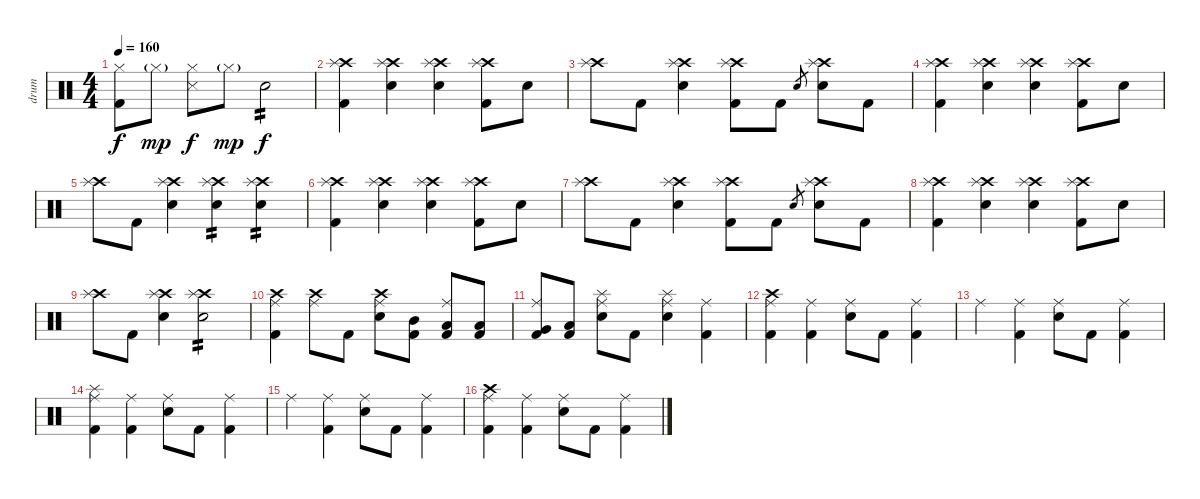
\track ("drum" "drum") {instrument percussion}
\staff {score}
\articulation defaults
\ts (4 4)
\tempo 160
\clef neutral
\ks c
("Hi-Hat (closed)" "Kick (hit) 2").8{dy f} "Hi-Hat (closed)"{g}.8{dy mp} ("Hi-Hat (closed)" "Snare (side stick) 3").8{dy f} "Hi-Hat (closed)"{g}.8{dy mp} "Electric Snare (hit)".2{tp 2 dy f} |
("Crash high (hit)" "Splash (hit)" "Kick (hit) 2").4 ("Crash high (hit)" "Splash (hit)" "Electric Snare (hit)").4 ("Crash high (hit)" "Splash (hit)" "Electric Snare (hit)").4 ("Crash high (hit)" "Splash (hit)" "Kick (hit) 2").8 "Electric Snare (hit)".8 |
("Crash high (hit)" "Splash (hit)").8 "Kick (hit) 2".8 ("Crash high (hit)" "Splash (hit)" "Electric Snare (hit)").4 ("Crash high (hit)" "Splash (hit)" "Kick (hit) 2").8 "Kick (hit) 2".8 "Electric Snare (hit)".8{gr} ("Crash high (hit)" "Splash (hit)" "Electric Snare (hit)").8 "Kick (hit) 2".8 |
("Crash high (hit)" "Splash (hit)" "Kick (hit) 2").4 ("Crash high (hit)" "Splash (hit)" "Electric Snare (hit)").4 ("Crash high (hit)" "Splash (hit)" "Electric Snare (hit)").4 ("Crash high (hit)" "Splash (hit)" "Kick (hit) 2").8 "Electric Snare (hit)".8 |
("Crash high (hit)" "Splash (hit)").8 "Kick (hit) 2".8 ("Crash high (hit)" "Splash (hit)" "Electric Snare (hit)").4 ("Crash high (hit)" "Splash (hit)" "Electric Snare (hit)").4{tp 2} ("Crash high (hit)" "Splash (hit)" "Electric Snare (hit)").4{tp 2} |
("Crash high (hit)" "Splash (hit)" "Kick (hit) 2").4 ("Crash high (hit)" "Splash (hit)" "Electric Snare (hit)").4 ("Crash high (hit)" "Splash (hit)" "Electric Snare (hit)").4 ("Crash high (hit)" "Splash (hit)" "Kick (hit) 2").8 "Electric Snare (hit)".8 |
("Crash high (hit)" "Splash (hit)").8 "Kick (hit) 2".8 ("Crash high (hit)" "Splash (hit)" "Electric Snare (hit)").4 ("Crash high (hit)" "Splash (hit)" "Kick (hit) 2").8 "Kick (hit) 2".8 "Electric Snare (hit)".8{gr} ("Crash high (hit)" "Splash (hit)" "Electric Snare (hit)").8 "Kick (hit) 2".8 |
("Crash high (hit)" "Splash (hit)" "Kick (hit) 2").4 ("Crash high (hit)" "Splash (hit)" "Electric Snare (hit)").4 ("Crash high (hit)" "Splash (hit)" "Electric Snare (hit)").4 ("Crash high (hit)" "Splash (hit)" "Kick (hit) 2").8 "Electric Snare (hit)".8 |
("Crash high (hit)" "Splash (hit)").8 "Kick (hit) 2".8 ("Crash high (hit)" "Splash (hit)" "Electric Snare (hit)").4 ("Crash high (hit)" "Splash (hit)" "Electric Snare (hit)").2{tp 2} |
("Crash high (hit)" "Ride (middle)" "Kick (hit) 2").4 ("Crash high (hit)" "Ride (middle)").8 "Kick (hit) 2".8 ("Crash high (hit)" "Ride (middle)" "Electric Snare (hit)").8 ("Mid Tom (hit)" "Kick (hit) 2").8 ("Ride (middle)" "Low Tom (hit)" "Kick (hit) 2").8 ("Low Tom (hit)" "Kick (hit) 2").8 |
("Ride (middle)" "Very Low Tom (hit)" "Kick (hit) 2").8 ("Low Floor Tom (hit)" "Kick (hit) 2").8 ("Splash (hit)" "Ride (middle)" "Electric Snare (hit)").8 "Kick (hit) 2".8 ("Splash (hit)" "Ride (middle)" "Electric Snare (hit)").4 ("Ride (middle)" "Kick (hit) 2").4 |
("Crash high (hit)" "Ride (middle)" "Kick (hit) 2").4 ("Ride (middle)" "Kick (hit) 2").4 ("Ride (middle)" "Electric Snare (hit)").8 "Kick (hit) 2".8 ("Ride (middle)" "Kick (hit) 2").4 |
"Ride (middle)".4 ("Ride (middle)" "Kick (hit) 2").4 ("Ride (middle)" "Electric Snare (hit)").8 "Kick (hit) 2".8 ("Ride (middle)" "Kick (hit) 2").4 |
("Splash (hit)" "Ride (middle)" "Kick (hit) 2").4 ("Ride (middle)" "Kick (hit) 2").4 ("Ride (middle)" "Electric Snare (hit)").8 "Kick (hit) 2".8 ("Ride (middle)" "Kick (hit) 2").4 |
"Ride (middle)".4 ("Ride (middle)" "Kick (hit) 2").4 ("Ride (middle)" "Electric Snare (hit)").8 "Kick (hit) 2".8 ("Ride (middle)" "Kick (hit) 2").4 |
("Crash high (hit)" "Ride (middle)" "Kick (hit) 2").4 ("Ride (middle)" "Kick (hit) 2").4 ("Ride (middle)" "Electric Snare (hit)").8 "Kick (hit) 2".8 ("Ride (middle)" "Kick (hit) 2").4
